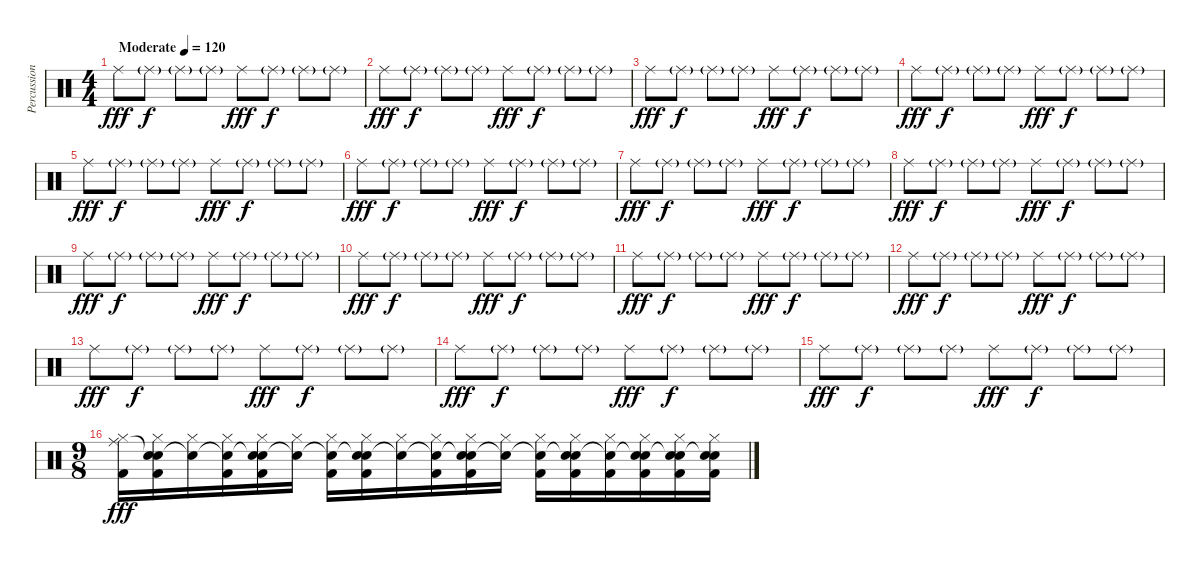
\track ("Percussion" "Percussion") {instrument percussion}
\staff {score}
\articulation defaults
\ts (4 4)
\tempo (120 "Moderate")
\clef neutral
\ks c "Ride (middle)".8{dy fff} "Ride (middle)"{g}.8{dy f} "Ride (middle)"{g}.8 "Ride (middle)"{g}.8 "Ride (middle)".8{dy fff} "Ride (middle)"{g}.8{dy f} "Ride (middle)"{g}.8 "Ride (middle)"{g}.8
|
"Ride (middle)".8{dy fff} "Ride (middle)"{g}.8{dy f} "Ride (middle)"{g}.8 "Ride (middle)"{g}.8 "Ride (middle)".8{dy fff} "Ride (middle)"{g}.8{dy f} "Ride (middle)"{g}.8 "Ride (middle)"{g}.8 |
"Ride (middle)".8{dy fff} "Ride (middle)"{g}.8{dy f} "Ride (middle)"{g}.8 "Ride (middle)"{g}.8 "Ride (middle)".8{dy fff} "Ride (middle)"{g}.8{dy f} "Ride (middle)"{g}.8 "Ride (middle)"{g}.8 |
"Ride (middle)".8{dy fff} "Ride (middle)"{g}.8{dy f} "Ride (middle)"{g}.8 "Ride (middle)"{g}.8 "Ride (middle)".8{dy fff} "Ride (middle)"{g}.8{dy f} "Ride (middle)"{g}.8 "Ride (middle)"{g}.8 |
"Ride (middle)".8{dy fff} "Ride (middle)"{g}.8{dy f} "Ride (middle)"{g}.8 "Ride (middle)"{g}.8 "Ride (middle)".8{dy fff} "Ride (middle)"{g}.8{dy f} "Ride (middle)"{g}.8 "Ride (middle)"{g}.8 |
"Ride (middle)".8{dy fff} "Ride (middle)"{g}.8{dy f} "Ride (middle)"{g}.8 "Ride (middle)"{g}.8 "Ride (middle)".8{dy fff} "Ride (middle)"{g}.8{dy f} "Ride (middle)"{g}.8 "Ride (middle)"{g}.8 |
"Ride (middle)".8{dy fff} "Ride (middle)"{g}.8{dy f} "Ride (middle)"{g}.8 "Ride (middle)"{g}.8 "Ride (middle)".8{dy fff} "Ride (middle)"{g}.8{dy f} "Ride (middle)"{g}.8 "Ride (middle)"{g}.8 |
"Ride (middle)".8{dy fff} "Ride (middle)"{g}.8{dy f} "Ride (middle)"{g}.8 "Ride (middle)"{g}.8 "Ride (middle)".8{dy fff} "Ride (middle)"{g}.8{dy f} "Ride (middle)"{g}.8 "Ride (middle)"{g}.8 |
"Ride (middle)".8{dy fff} "Ride (middle)"{g}.8{dy f} "Ride (middle)"{g}.8 "Ride (middle)"{g}.8 "Ride (middle)".8{dy fff} "Ride (middle)"{g}.8{dy f} "Ride (middle)"{g}.8 "Ride (middle)"{g}.8 |
"Ride (middle)".8{dy fff} "Ride (middle)"{g}.8{dy f} "Ride (middle)"{g}.8 "Ride (middle)"{g}.8 "Ride (middle)".8{dy fff} "Ride (middle)"{g}.8{dy f} "Ride (middle)"{g}.8 "Ride (middle)"{g}.8 |
"Ride (middle)".8{dy fff} "Ride (middle)"{g}.8{dy f} "Ride (middle)"{g}.8 "Ride (middle)"{g}.8 "Ride (middle)".8{dy fff} "Ride (middle)"{g}.8{dy f} "Ride (middle)"{g}.8 "Ride (middle)"{g}.8 |
"Ride (middle)".8{dy fff} "Ride (middle)"{g}.8{dy f} "Ride (middle)"{g}.8 "Ride (middle)"{g}.8 "Ride (middle)".8{dy fff} "Ride (middle)"{g}.8{dy f} "Ride (middle)"{g}.8 "Ride (middle)"{g}.8 |
"Ride (middle)".8{dy fff} "Ride (middle)"{g}.8{dy f} "Ride (middle)"{g}.8 "Ride (middle)"{g}.8 "Ride (middle)".8{dy fff} "Ride (middle)"{g}.8{dy f} "Ride (middle)"{g}.8 "Ride (middle)"{g}.8 |
"Ride (middle)".8{dy fff} "Ride (middle)"{g}.8{dy f} "Ride (middle)"{g}.8 "Ride (middle)"{g}.8 "Ride (middle)".8{dy fff} "Ride (middle)"{g}.8{dy f} "Ride (middle)"{g}.8 "Ride (middle)"{g}.8 |
"Ride (middle)".8{dy fff} "Ride (middle)"{g}.8{dy f} "Ride (middle)"{g}.8 "Ride (middle)"{g}.8 "Ride (middle)".8{dy fff} "Ride (middle)"{g}.8{dy f} "Ride (middle)"{g}.8 "Ride (middle)"{g}.8 |
\ts (9 8)
("Ride (middle)" "Hi-Hat (closed)" "Kick (hit) 2").16{dy fff} ("Snare (hit)"{t} "Hi-Hat (closed)" "Snare (hit) 2" "Kick (hit) 2").16 ("Snare (hit)"{t} "Hi-Hat (closed)").16 ("Snare (hit)"{t} "Hi-Hat (closed)" "Kick (hit) 2").16 ("Snare (hit)"{t} "Hi-Hat (closed)" "Snare (hit) 2" "Kick (hit) 2").16 ("Snare (hit)"{t} "Hi-Hat (closed)").16 ("Snare (hit)"{t} "Hi-Hat (closed)" "Kick (hit) 2").16 ("Snare (hit)"{t} "Hi-Hat (closed)" "Snare (hit) 2" "Kick (hit) 2").16 ("Snare (hit)"{t} "Hi-Hat (closed)").16 ("Snare (hit)"{t} "Hi-Hat (closed)" "Kick (hit) 2").16 ("Snare (hit)"{t} "Hi-Hat (closed)" "Snare (hit) 2" "Kick (hit) 2").16 ("Snare (hit)"{t} "Hi-Hat (closed)").16 ("Snare (hit)"{t} "Hi-Hat (closed)" "Kick (hit) 2").16 ("Snare (hit)"{t} "Hi-Hat (closed)" "Snare (hit) 2" "Kick (hit) 2").16 ("Snare (hit)"{t} "Hi-Hat (closed)" "Kick (hit) 2").16 ("Snare (hit)"{t} "Hi-Hat (closed)" "Snare (hit) 2" "Kick (hit) 2").16 ("Snare (hit)"{t} "Hi-Hat (closed)" "Snare (hit) 2" "Kick (hit) 2").16 ("Snare (hit)"{t} "Hi-Hat (closed)" "Snare (hit) 2" "Kick (hit) 2").16
